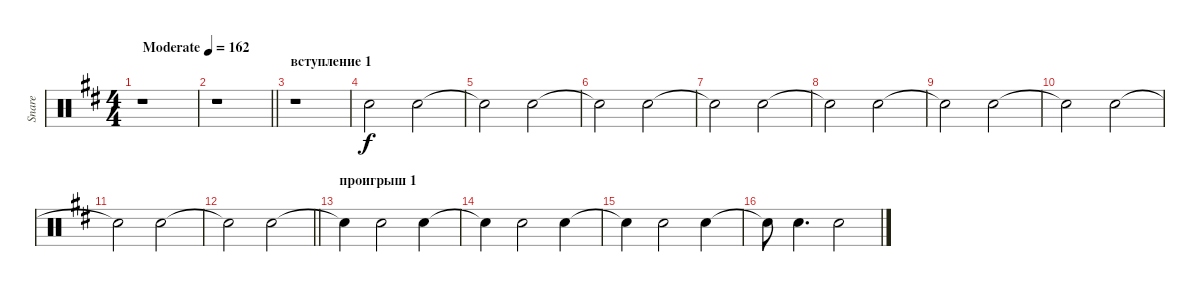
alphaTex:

\track ("Snare" "Snare") {instrument percussion}
\staff {score}
\articulation defaults
\ts (4 4)
\tempo (162 "Moderate")
\clef neutral
\ks bminor
r.1{dy f} |
\barLineRight lightlight
r.1 |
\section ("" "вступление 1")
r.1 |
"Snare (hit) 2".2 "Electric Snare (hit)".2 |
"Electric Snare (hit)"{t}.2 "Electric Snare (hit)".2 |
"Electric Snare (hit)"{t}.2 "Electric Snare (hit)".2 |
"Electric Snare (hit)"{t}.2 "Electric Snare (hit)".2 |
"Electric Snare (hit)"{t}.2 "Electric Snare (hit)".2 |
"Electric Snare (hit)"{t}.2 "Electric Snare (hit)".2 |
"Electric Snare (hit)"{t}.2 "Electric Snare (hit)".2 |
"Electric Snare (hit)"{t}.2 "Electric Snare (hit)".2 |
\barLineRight lightlight "Electric Snare (hit)"{t}.2 "Electric Snare (hit)".2
|
\section ("" "проигрыш 1")
"Electric Snare (hit)"{t}.4 "Electric Snare (hit)".2 "Electric Snare (hit)".4 |
"Electric Snare (hit)"{t}.4 "Electric Snare (hit)".2 "Electric Snare (hit)".4 |
"Electric Snare (hit)"{t}.4 "Electric Snare (hit)".2 "Electric Snare (hit)".4 |
"Electric Snare (hit)"{t}.8 "Electric Snare (hit)".4{d} "Electric Snare (hit)".2
